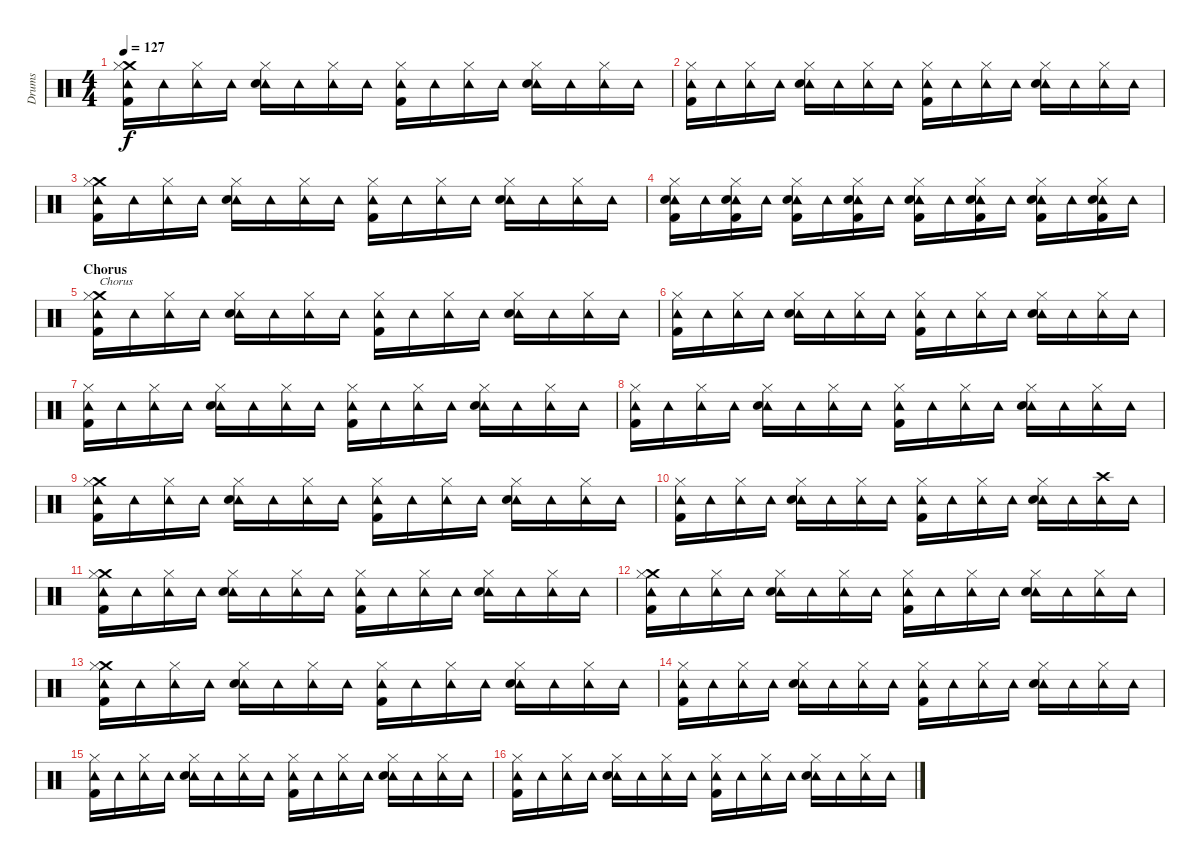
\track ("Drums" "Drums") {instrument percussion}
\staff {score}
\articulation defaults
\ts (4 4)
\tempo 127
\clef neutral
\ks c
("Crash medium (hit)" "Tambourine (hit)" "Hi-Hat (closed)" "Kick (hit) 2").16{dy f} "Tambourine (hit)".16 ("Tambourine (hit)" "Hi-Hat (closed)").16 "Tambourine (hit)".16 ("Tambourine (hit)" "Hi-Hat (closed)" "Snare (hit) 2").16 "Tambourine (hit)".16 ("Tambourine (hit)" "Hi-Hat (closed)").16 "Tambourine (hit)".16 ("Tambourine (hit)" "Hi-Hat (closed)" "Kick (hit) 2").16 "Tambourine (hit)".16 ("Tambourine (hit)" "Hi-Hat (closed)").16 "Tambourine (hit)".16 ("Tambourine (hit)" "Hi-Hat (closed)" "Snare (hit) 2").16 "Tambourine (hit)".16 ("Tambourine (hit)" "Hi-Hat (closed)").16 "Tambourine (hit)".16 |
("Tambourine (hit)" "Hi-Hat (closed)" "Kick (hit) 2").16 "Tambourine (hit)".16 ("Tambourine (hit)" "Hi-Hat (closed)").16 "Tambourine (hit)".16 ("Tambourine (hit)" "Hi-Hat (closed)" "Snare (hit) 2").16 "Tambourine (hit)".16 ("Tambourine (hit)" "Hi-Hat (closed)").16 "Tambourine (hit)".16 ("Tambourine (hit)" "Hi-Hat (closed)" "Kick (hit) 2").16 "Tambourine (hit)".16 ("Tambourine (hit)" "Hi-Hat (closed)").16 "Tambourine (hit)".16 ("Tambourine (hit)" "Hi-Hat (closed)" "Snare (hit) 2").16 "Tambourine (hit)".16 ("Tambourine (hit)" "Hi-Hat (closed)").16 "Tambourine (hit)".16 |
("Crash medium (hit)" "Tambourine (hit)" "Hi-Hat (closed)" "Kick (hit) 2").16 "Tambourine (hit)".16 ("Tambourine (hit)" "Hi-Hat (closed)").16 "Tambourine (hit)".16 ("Tambourine (hit)" "Hi-Hat (closed)" "Snare (hit) 2").16 "Tambourine (hit)".16 ("Tambourine (hit)" "Hi-Hat (closed)").16 "Tambourine (hit)".16 ("Tambourine (hit)" "Hi-Hat (closed)" "Kick (hit) 2").16 "Tambourine (hit)".16 ("Tambourine (hit)" "Hi-Hat (closed)").16 "Tambourine (hit)".16 ("Tambourine (hit)" "Hi-Hat (closed)" "Snare (hit) 2").16 "Tambourine (hit)".16 ("Tambourine (hit)" "Hi-Hat (closed)").16 "Tambourine (hit)".16 |
("Tambourine (hit)" "Hi-Hat (closed)" "Snare (hit) 2" "Kick (hit) 2").16 "Tambourine (hit)".16 ("Tambourine (hit)" "Hi-Hat (closed)" "Snare (hit) 2" "Kick (hit) 2").16 "Tambourine (hit)".16 ("Tambourine (hit)" "Hi-Hat (closed)" "Snare (hit) 2" "Kick (hit) 2").16 "Tambourine (hit)".16 ("Tambourine (hit)" "Hi-Hat (closed)" "Snare (hit) 2" "Kick (hit) 2").16 "Tambourine (hit)".16 ("Tambourine (hit)" "Hi-Hat (closed)" "Snare (hit) 2" "Kick (hit) 2").16 "Tambourine (hit)".16 ("Tambourine (hit)" "Hi-Hat (closed)" "Snare (hit) 2" "Kick (hit) 2").16 "Tambourine (hit)".16 ("Tambourine (hit)" "Hi-Hat (closed)" "Snare (hit) 2" "Kick (hit) 2").16 "Tambourine (hit)".16 ("Tambourine (hit)" "Hi-Hat (closed)" "Snare (hit) 2" "Kick (hit) 2").16 "Tambourine (hit)".16 |
\section ("" "Chorus")
("Crash medium (hit)" "Tambourine (hit)" "Hi-Hat (closed)" "Kick (hit) 2").16{txt "Chorus"} "Tambourine (hit)".16 ("Tambourine (hit)" "Hi-Hat (closed)").16 "Tambourine (hit)".16 ("Tambourine (hit)" "Hi-Hat (closed)" "Snare (hit) 2").16 "Tambourine (hit)".16 ("Tambourine (hit)" "Hi-Hat (closed)").16 "Tambourine (hit)".16 ("Tambourine (hit)" "Hi-Hat (closed)" "Kick (hit) 2").16 "Tambourine (hit)".16 ("Tambourine (hit)" "Hi-Hat (closed)").16 "Tambourine (hit)".16 ("Tambourine (hit)" "Hi-Hat (closed)" "Snare (hit) 2").16 "Tambourine (hit)".16 ("Tambourine (hit)" "Hi-Hat (closed)").16 "Tambourine (hit)".16 |
("Tambourine (hit)" "Hi-Hat (closed)" "Kick (hit) 2").16 "Tambourine (hit)".16 ("Tambourine (hit)" "Hi-Hat (closed)").16 "Tambourine (hit)".16 ("Tambourine (hit)" "Hi-Hat (closed)" "Snare (hit) 2").16 "Tambourine (hit)".16 ("Tambourine (hit)" "Hi-Hat (closed)").16 "Tambourine (hit)".16 ("Tambourine (hit)" "Hi-Hat (closed)" "Kick (hit) 2").16 "Tambourine (hit)".16 ("Tambourine (hit)" "Hi-Hat (closed)").16 "Tambourine (hit)".16 ("Tambourine (hit)" "Hi-Hat (closed)" "Snare (hit) 2").16 "Tambourine (hit)".16 ("Tambourine (hit)" "Hi-Hat (closed)").16 "Tambourine (hit)".16 |
("Tambourine (hit)" "Hi-Hat (closed)" "Kick (hit) 2").16 "Tambourine (hit)".16 ("Tambourine (hit)" "Hi-Hat (closed)").16 "Tambourine (hit)".16 ("Tambourine (hit)" "Hi-Hat (closed)" "Snare (hit) 2").16 "Tambourine (hit)".16 ("Tambourine (hit)" "Hi-Hat (closed)").16 "Tambourine (hit)".16 ("Tambourine (hit)" "Hi-Hat (closed)" "Kick (hit) 2").16 "Tambourine (hit)".16 ("Tambourine (hit)" "Hi-Hat (closed)").16 "Tambourine (hit)".16 ("Tambourine (hit)" "Hi-Hat (closed)" "Snare (hit) 2").16 "Tambourine (hit)".16 ("Tambourine (hit)" "Hi-Hat (closed)").16 "Tambourine (hit)".16 |
("Tambourine (hit)" "Hi-Hat (closed)" "Kick (hit) 2").16 "Tambourine (hit)".16 ("Tambourine (hit)" "Hi-Hat (closed)").16 "Tambourine (hit)".16 ("Tambourine (hit)" "Hi-Hat (closed)" "Snare (hit) 2").16 "Tambourine (hit)".16 ("Tambourine (hit)" "Hi-Hat (closed)").16 "Tambourine (hit)".16 ("Tambourine (hit)" "Hi-Hat (closed)" "Kick (hit) 2").16 "Tambourine (hit)".16 ("Tambourine (hit)" "Hi-Hat (closed)").16 "Tambourine (hit)".16 ("Tambourine (hit)" "Hi-Hat (closed)" "Snare (hit) 2").16 "Tambourine (hit)".16 ("Tambourine (hit)" "Hi-Hat (closed)").16 "Tambourine (hit)".16 |
("Crash medium (hit)" "Tambourine (hit)" "Hi-Hat (closed)" "Kick (hit) 2").16 "Tambourine (hit)".16 ("Tambourine (hit)" "Hi-Hat (closed)").16 "Tambourine (hit)".16 ("Tambourine (hit)" "Hi-Hat (closed)" "Snare (hit) 2").16 "Tambourine (hit)".16 ("Tambourine (hit)" "Hi-Hat (closed)").16 "Tambourine (hit)".16 ("Tambourine (hit)" "Hi-Hat (closed)" "Kick (hit) 2").16 "Tambourine (hit)".16 ("Tambourine (hit)" "Hi-Hat (closed)").16 "Tambourine (hit)".16 ("Tambourine (hit)" "Hi-Hat (closed)" "Snare (hit) 2").16 "Tambourine (hit)".16 ("Tambourine (hit)" "Hi-Hat (closed)").16 "Tambourine (hit)".16 |
("Tambourine (hit)" "Hi-Hat (closed)" "Kick (hit) 2").16 "Tambourine (hit)".16 ("Tambourine (hit)" "Hi-Hat (closed)").16 "Tambourine (hit)".16 ("Tambourine (hit)" "Hi-Hat (closed)" "Snare (hit) 2").16 "Tambourine (hit)".16 ("Tambourine (hit)" "Hi-Hat (closed)").16 "Tambourine (hit)".16 ("Tambourine (hit)" "Hi-Hat (closed)" "Kick (hit) 2").16 "Tambourine (hit)".16 ("Tambourine (hit)" "Hi-Hat (closed)").16 "Tambourine (hit)".16 ("Tambourine (hit)" "Hi-Hat (closed)" "Snare (hit) 2").16 "Tambourine (hit)".16 ("Tambourine (hit)" "Crash high (hit)").16 "Tambourine (hit)".16 |
("Crash medium (hit)" "Tambourine (hit)" "Hi-Hat (closed)" "Kick (hit) 2").16 "Tambourine (hit)".16 ("Tambourine (hit)" "Hi-Hat (closed)").16 "Tambourine (hit)".16 ("Tambourine (hit)" "Hi-Hat (closed)" "Snare (hit) 2").16 "Tambourine (hit)".16 ("Tambourine (hit)" "Hi-Hat (closed)").16 "Tambourine (hit)".16 ("Tambourine (hit)" "Hi-Hat (closed)" "Kick (hit) 2").16 "Tambourine (hit)".16 ("Tambourine (hit)" "Hi-Hat (closed)").16 "Tambourine (hit)".16 ("Tambourine (hit)" "Hi-Hat (closed)" "Snare (hit) 2").16 "Tambourine (hit)".16 ("Tambourine (hit)" "Hi-Hat (closed)").16 "Tambourine (hit)".16 |
("Crash medium (hit)" "Tambourine (hit)" "Hi-Hat (closed)" "Kick (hit) 2").16 "Tambourine (hit)".16 ("Tambourine (hit)" "Hi-Hat (closed)").16 "Tambourine (hit)".16 ("Tambourine (hit)" "Hi-Hat (closed)" "Snare (hit) 2").16 "Tambourine (hit)".16 ("Tambourine (hit)" "Hi-Hat (closed)").16 "Tambourine (hit)".16 ("Tambourine (hit)" "Hi-Hat (closed)" "Kick (hit) 2").16 "Tambourine (hit)".16 ("Tambourine (hit)" "Hi-Hat (closed)").16 "Tambourine (hit)".16 ("Tambourine (hit)" "Hi-Hat (closed)" "Snare (hit) 2").16 "Tambourine (hit)".16 ("Tambourine (hit)" "Hi-Hat (closed)").16 "Tambourine (hit)".16 |
("Crash medium (hit)" "Tambourine (hit)" "Hi-Hat (closed)" "Kick (hit) 2").16 "Tambourine (hit)".16 ("Tambourine (hit)" "Hi-Hat (closed)").16 "Tambourine (hit)".16 ("Tambourine (hit)" "Hi-Hat (closed)" "Snare (hit) 2").16 "Tambourine (hit)".16 ("Tambourine (hit)" "Hi-Hat (closed)").16 "Tambourine (hit)".16 ("Tambourine (hit)" "Hi-Hat (closed)" "Kick (hit) 2").16 "Tambourine (hit)".16 ("Tambourine (hit)" "Hi-Hat (closed)").16 "Tambourine (hit)".16 ("Tambourine (hit)" "Hi-Hat (closed)" "Snare (hit) 2").16 "Tambourine (hit)".16 ("Tambourine (hit)" "Hi-Hat (closed)").16 "Tambourine (hit)".16 |
("Tambourine (hit)" "Hi-Hat (closed)" "Kick (hit) 2").16 "Tambourine (hit)".16 ("Tambourine (hit)" "Hi-Hat (closed)").16 "Tambourine (hit)".16 ("Tambourine (hit)" "Hi-Hat (closed)" "Snare (hit) 2").16 "Tambourine (hit)".16 ("Tambourine (hit)" "Hi-Hat (closed)").16 "Tambourine (hit)".16 ("Tambourine (hit)" "Hi-Hat (closed)" "Kick (hit) 2").16 "Tambourine (hit)".16 ("Tambourine (hit)" "Hi-Hat (closed)").16 "Tambourine (hit)".16 ("Tambourine (hit)" "Hi-Hat (closed)" "Snare (hit) 2").16 "Tambourine (hit)".16 ("Tambourine (hit)" "Hi-Hat (closed)").16 "Tambourine (hit)".16 |
("Tambourine (hit)" "Hi-Hat (closed)" "Kick (hit) 2").16 "Tambourine (hit)".16 ("Tambourine (hit)" "Hi-Hat (closed)").16 "Tambourine (hit)".16 ("Tambourine (hit)" "Hi-Hat (closed)" "Snare (hit) 2").16 "Tambourine (hit)".16 ("Tambourine (hit)" "Hi-Hat (closed)").16 "Tambourine (hit)".16 ("Tambourine (hit)" "Hi-Hat (closed)" "Kick (hit) 2").16 "Tambourine (hit)".16 ("Tambourine (hit)" "Hi-Hat (closed)").16 "Tambourine (hit)".16 ("Tambourine (hit)" "Hi-Hat (closed)" "Snare (hit) 2").16 "Tambourine (hit)".16 ("Tambourine (hit)" "Hi-Hat (closed)").16 "Tambourine (hit)".16 |
("Tambourine (hit)" "Hi-Hat (closed)" "Kick (hit) 2").16 "Tambourine (hit)".16 ("Tambourine (hit)" "Hi-Hat (closed)").16 "Tambourine (hit)".16 ("Tambourine (hit)" "Hi-Hat (closed)" "Snare (hit) 2").16 "Tambourine (hit)".16 ("Tambourine (hit)" "Hi-Hat (closed)").16 "Tambourine (hit)".16 ("Tambourine (hit)" "Hi-Hat (closed)" "Kick (hit) 2").16 "Tambourine (hit)".16 ("Tambourine (hit)" "Hi-Hat (closed)").16 "Tambourine (hit)".16 ("Tambourine (hit)" "Hi-Hat (closed)" "Snare (hit) 2").16 "Tambourine (hit)".16 ("Tambourine (hit)" "Hi-Hat (closed)").16 "Tambourine (hit)".16
